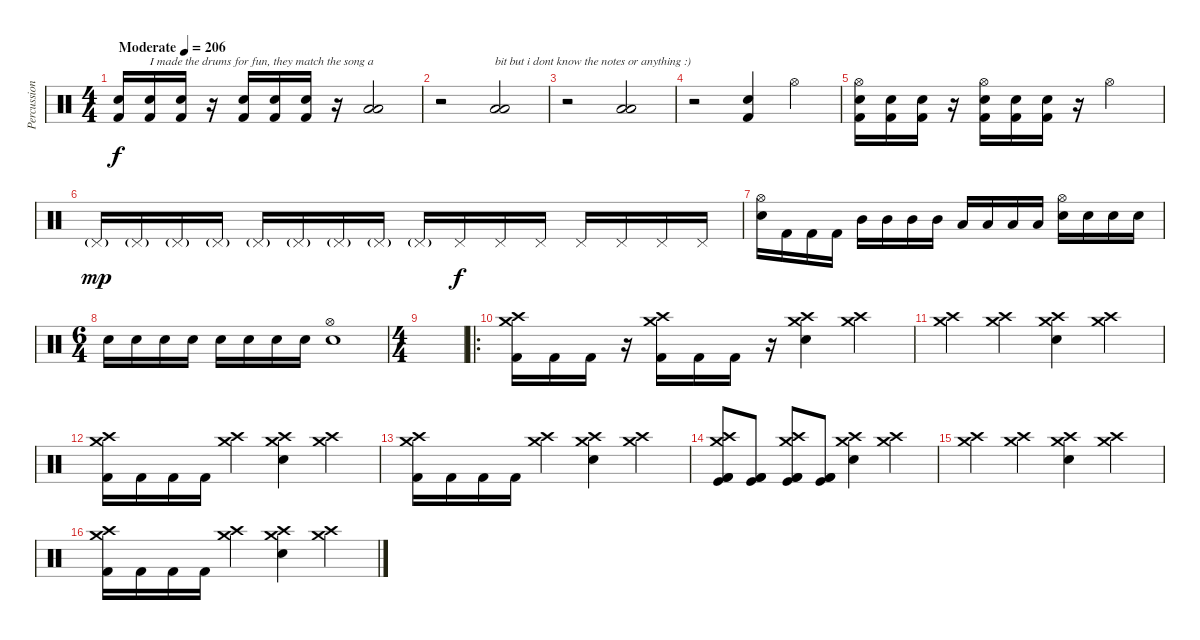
\track ("Percussion" "Percussion") {instrument percussion}
\staff {score}
\articulation defaults
\ts (4 4)
\tempo (206 "Moderate")
\clef neutral
\ks c
("Electric Snare (hit)" "Kick (hit) 2").16{dy f} ("Electric Snare (hit)" "Kick (hit) 2").16{txt "I made the drums for fun, they match the song a "} ("Electric Snare (hit)" "Kick (hit) 2").16 r.16 ("Electric Snare (hit)" "Kick (hit) 2").16 ("Electric Snare (hit)" "Kick (hit) 2").16 ("Electric Snare (hit)" "Kick (hit) 2").16 r.16 ("Low Tom (hit)" "Low Floor Tom (hit)").2 |
r.2 ("Low Tom (hit)" "Low Floor Tom (hit)").2{txt "bit but i dont know the notes or anything :)"} |
r.2 ("Low Tom (hit)" "Low Floor Tom (hit)").2 |
r.2 ("Snare (hit) 2" "Kick (hit) 2").4 "Hi-Hat (open)".4 |
("Hi-Hat (open)" "Electric Snare (hit)" "Kick (hit) 2").16 ("Electric Snare (hit)" "Kick (hit) 2").16 ("Electric Snare (hit)" "Kick (hit) 2").16 r.16 ("Hi-Hat (open)" "Electric Snare (hit)" "Kick (hit) 2").16 ("Electric Snare (hit)" "Kick (hit) 2").16 ("Electric Snare (hit)" "Kick (hit) 2").16 r.16 "Hi-Hat (open)".2 |
"Pedal Hi-Hat (hit)"{g}.16{dy mp} "Pedal Hi-Hat (hit)"{g}.16 "Pedal Hi-Hat (hit)"{g}.16 "Pedal Hi-Hat (hit)"{g}.16 "Pedal Hi-Hat (hit)"{g}.16 "Pedal Hi-Hat (hit)"{g}.16 "Pedal Hi-Hat (hit)"{g}.16 "Pedal Hi-Hat (hit)"{g}.16 "Pedal Hi-Hat (hit)"{g}.16 "Pedal Hi-Hat (hit)".16{dy f} "Pedal Hi-Hat (hit)".16 "Pedal Hi-Hat (hit)".16 "Pedal Hi-Hat (hit)".16 "Pedal Hi-Hat (hit)".16 "Pedal Hi-Hat (hit)".16 "Pedal Hi-Hat (hit)".16 |
("Hi-Hat (open)" "Snare (hit) 2").16 "Kick (hit) 2".16 "Kick (hit) 2".16 "Kick (hit) 2".16 "Mid Tom (hit)".16 "Mid Tom (hit)".16 "Mid Tom (hit)".16 "Mid Tom (hit)".16 "Low Tom (hit)".16 "Low Tom (hit)".16 "Low Tom (hit)".16 "Low Tom (hit)".16 ("Hi-Hat (open)" "Snare (hit) 2").16 "Snare (hit) 2".16 "Snare (hit) 2".16 "Snare (hit) 2".16 |
\ts (6 4)
"Electric Snare (hit)".16 "Electric Snare (hit)".16 "Electric Snare (hit)".16 "Electric Snare (hit)".16 "Electric Snare (hit)".16 "Electric Snare (hit)".16 "Electric Snare (hit)".16 "Electric Snare (hit)".16 ("Hi-Hat (open)" "Electric Snare (hit)").1 |
\ts (4 4)
|
\ro
("Crash high (hit)" "Crash medium (hit)" "Kick (hit) 2").16 "Kick (hit) 2".16 "Kick (hit) 2".16 r.16 ("Crash high (hit)" "Crash medium (hit)" "Kick (hit) 2").16 "Kick (hit) 2".16 "Kick (hit) 2".16 r.16 ("Crash high (hit)" "Crash medium (hit)" "Snare (hit) 2").4 ("Crash high (hit)" "Crash medium (hit)").4 |
("Crash high (hit)" "Crash medium (hit)").4 ("Crash high (hit)" "Crash medium (hit)").4 ("Crash high (hit)" "Crash medium (hit)" "Snare (hit) 2").4 ("Crash high (hit)" "Crash medium (hit)").4 |
("Crash high (hit)" "Crash medium (hit)" "Kick (hit) 2").16 "Kick (hit) 2".16 "Kick (hit) 2".16 "Kick (hit) 2".16 ("Crash high (hit)" "Crash medium (hit)").4 ("Crash high (hit)" "Crash medium (hit)" "Snare (hit) 2").4 ("Crash high (hit)" "Crash medium (hit)").4 |
("Crash high (hit)" "Crash medium (hit)" "Kick (hit) 2").16 "Kick (hit) 2".16 "Kick (hit) 2".16 "Kick (hit) 2".16 ("Crash high (hit)" "Crash medium (hit)").4 ("Crash high (hit)" "Crash medium (hit)" "Snare (hit) 2").4 ("Crash high (hit)" "Crash medium (hit)").4 |
("Crash high (hit)" "Crash medium (hit)" "Kick (hit)" "Kick (hit) 2" "Kick (hit) 2").8 ("Kick (hit)" "Kick (hit) 2" "Kick (hit) 2").8 ("Crash high (hit)" "Crash medium (hit)" "Kick (hit)" "Kick (hit) 2" "Kick (hit) 2").8 ("Kick (hit)" "Kick (hit) 2" "Kick (hit) 2").8 ("Crash high (hit)" "Crash medium (hit)" "Snare (hit) 2").4 ("Crash high (hit)" "Crash medium (hit)").4 |
("Crash high (hit)" "Crash medium (hit)").4 ("Crash high (hit)" "Crash medium (hit)").4 ("Crash high (hit)" "Crash medium (hit)" "Snare (hit) 2").4 ("Crash high (hit)" "Crash medium (hit)").4 |
("Crash high (hit)" "Crash medium (hit)" "Kick (hit) 2").16 "Kick (hit) 2".16 "Kick (hit) 2".16 "Kick (hit) 2".16 ("Crash high (hit)" "Crash medium (hit)").4 ("Crash high (hit)" "Crash medium (hit)" "Snare (hit) 2").4 ("Crash high (hit)" "Crash medium (hit)").4
